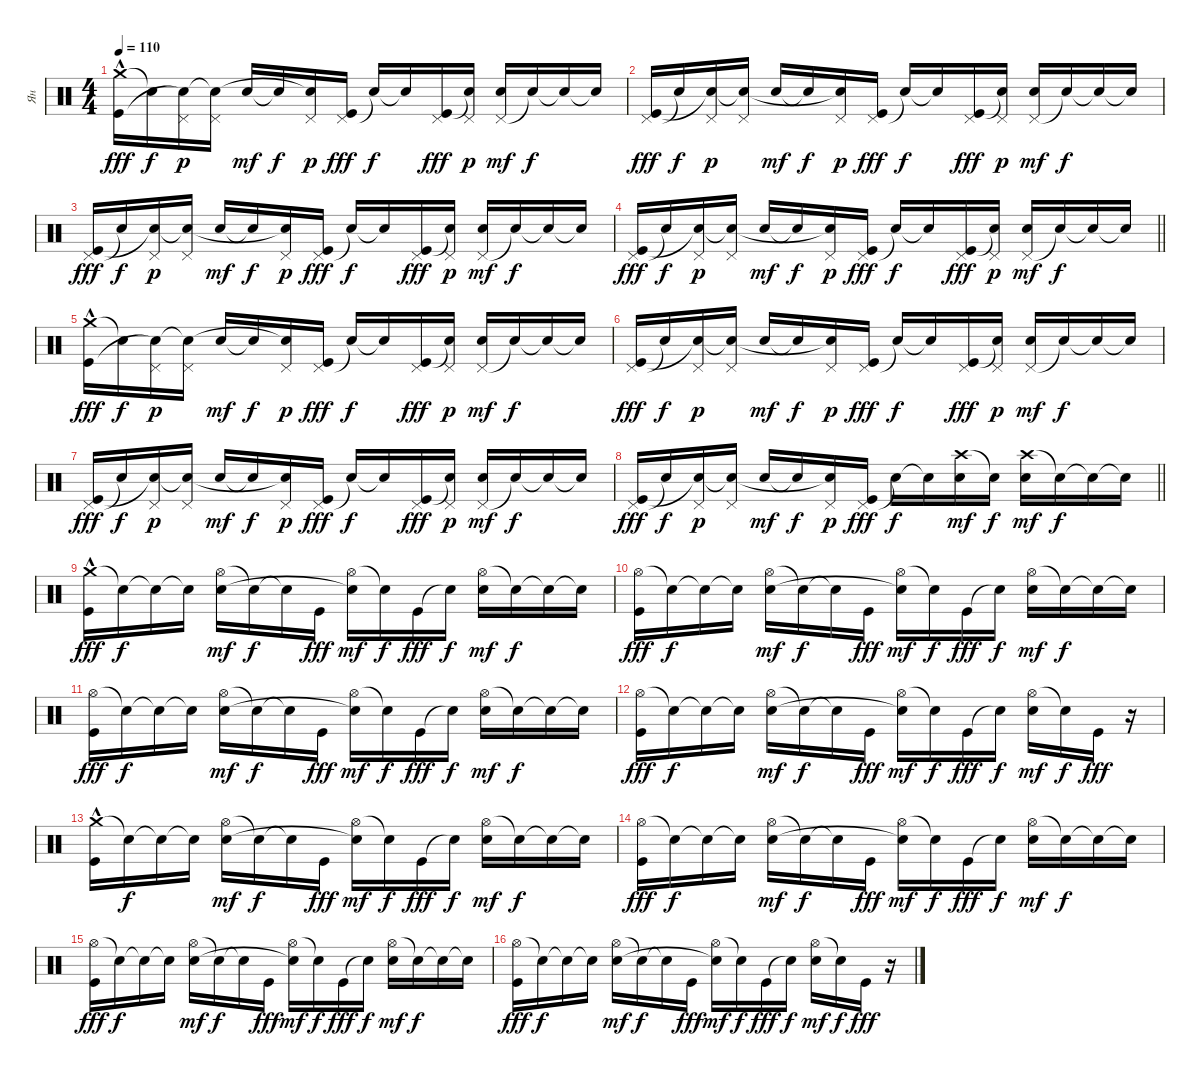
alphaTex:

\track ("Ян " "Ян ") {instrument percussion}
\staff
\articulation defaults
\ts (4 4)
\tempo 110
\clef neutral
\ks c
("Crash medium (hit)" "Kick (hit)"{hac}).16{dy fff} "Snare (hit)"{t}.16{dy f} ("Pedal Hi-Hat (hit)" "Snare (hit)"{t}).16{dy p} ("Pedal Hi-Hat (hit)" "Snare (hit)"{t}).16 "Snare (hit) 2".16{dy mf} "Snare (hit)"{t}.16{dy f} ("Pedal Hi-Hat (hit)" "Snare (hit)"{t}).16{dy p} ("Pedal Hi-Hat (hit)" "Kick (hit)").16{dy fff} "Snare (hit)"{t}.16{dy f} "Snare (hit)"{t}.16 ("Pedal Hi-Hat (hit)" "Kick (hit)").16{dy fff} ("Pedal Hi-Hat (hit)" "Snare (hit)"{t}).16{dy p} ("Pedal Hi-Hat (hit)" "Snare (hit) 2").16{dy mf} "Snare (hit)"{t}.16{dy f} "Snare (hit)"{t}.16 "Snare (hit)"{t}.16 |
("Pedal Hi-Hat (hit)" "Kick (hit)").16{dy fff} "Snare (hit)"{t}.16{dy f} ("Pedal Hi-Hat (hit)" "Snare (hit)"{t}).16{dy p} ("Pedal Hi-Hat (hit)" "Snare (hit)"{t}).16 "Snare (hit) 2".16{dy mf} "Snare (hit)"{t}.16{dy f} ("Pedal Hi-Hat (hit)" "Snare (hit)"{t}).16{dy p} ("Pedal Hi-Hat (hit)" "Kick (hit)").16{dy fff} "Snare (hit)"{t}.16{dy f} "Snare (hit)"{t}.16 ("Pedal Hi-Hat (hit)" "Kick (hit)").16{dy fff} ("Pedal Hi-Hat (hit)" "Snare (hit)"{t}).16{dy p} ("Pedal Hi-Hat (hit)" "Snare (hit) 2").16{dy mf} "Snare (hit)"{t}.16{dy f} "Snare (hit)"{t}.16 "Snare (hit)"{t}.16 |
("Pedal Hi-Hat (hit)" "Kick (hit)").16{dy fff} "Snare (hit)"{t}.16{dy f} ("Pedal Hi-Hat (hit)" "Snare (hit)"{t}).16{dy p} ("Pedal Hi-Hat (hit)" "Snare (hit)"{t}).16 "Snare (hit) 2".16{dy mf} "Snare (hit)"{t}.16{dy f} ("Pedal Hi-Hat (hit)" "Snare (hit)"{t}).16{dy p} ("Pedal Hi-Hat (hit)" "Kick (hit)").16{dy fff} "Snare (hit)"{t}.16{dy f} "Snare (hit)"{t}.16 ("Pedal Hi-Hat (hit)" "Kick (hit)").16{dy fff} ("Pedal Hi-Hat (hit)" "Snare (hit)"{t}).16{dy p} ("Pedal Hi-Hat (hit)" "Snare (hit) 2").16{dy mf} "Snare (hit)"{t}.16{dy f} "Snare (hit)"{t}.16 "Snare (hit)"{t}.16 |
\barLineRight lightlight
("Pedal Hi-Hat (hit)" "Kick (hit)").16{dy fff} "Snare (hit)"{t}.16{dy f} ("Pedal Hi-Hat (hit)" "Snare (hit)"{t}).16{dy p} ("Pedal Hi-Hat (hit)" "Snare (hit)"{t}).16 "Snare (hit) 2".16{dy mf} "Snare (hit)"{t}.16{dy f} ("Pedal Hi-Hat (hit)" "Snare (hit)"{t}).16{dy p} ("Pedal Hi-Hat (hit)" "Kick (hit)").16{dy fff} "Snare (hit)"{t}.16{dy f} "Snare (hit)"{t}.16 ("Pedal Hi-Hat (hit)" "Kick (hit)").16{dy fff} ("Pedal Hi-Hat (hit)" "Snare (hit)"{t}).16{dy p} ("Pedal Hi-Hat (hit)" "Snare (hit) 2").16{dy mf} "Snare (hit)"{t}.16{dy f} "Snare (hit)"{t}.16 "Snare (hit)"{t}.16 |
("Crash medium (hit)" "Kick (hit)"{hac}).16{dy fff} "Snare (hit)"{t}.16{dy f} ("Pedal Hi-Hat (hit)" "Snare (hit)"{t}).16{dy p} ("Pedal Hi-Hat (hit)" "Snare (hit)"{t}).16 "Snare (hit) 2".16{dy mf} "Snare (hit)"{t}.16{dy f} ("Pedal Hi-Hat (hit)" "Snare (hit)"{t}).16{dy p} ("Pedal Hi-Hat (hit)" "Kick (hit)").16{dy fff} "Snare (hit)"{t}.16{dy f} "Snare (hit)"{t}.16 ("Pedal Hi-Hat (hit)" "Kick (hit)").16{dy fff} ("Pedal Hi-Hat (hit)" "Snare (hit)"{t}).16{dy p} ("Pedal Hi-Hat (hit)" "Snare (hit) 2").16{dy mf} "Snare (hit)"{t}.16{dy f} "Snare (hit)"{t}.16 "Snare (hit)"{t}.16 |
("Pedal Hi-Hat (hit)" "Kick (hit)").16{dy fff} "Snare (hit)"{t}.16{dy f} ("Pedal Hi-Hat (hit)" "Snare (hit)"{t}).16{dy p} ("Pedal Hi-Hat (hit)" "Snare (hit)"{t}).16 "Snare (hit) 2".16{dy mf} "Snare (hit)"{t}.16{dy f} ("Pedal Hi-Hat (hit)" "Snare (hit)"{t}).16{dy p} ("Pedal Hi-Hat (hit)" "Kick (hit)").16{dy fff} "Snare (hit)"{t}.16{dy f} "Snare (hit)"{t}.16 ("Pedal Hi-Hat (hit)" "Kick (hit)").16{dy fff} ("Pedal Hi-Hat (hit)" "Snare (hit)"{t}).16{dy p} ("Pedal Hi-Hat (hit)" "Snare (hit) 2").16{dy mf} "Snare (hit)"{t}.16{dy f} "Snare (hit)"{t}.16 "Snare (hit)"{t}.16 |
("Pedal Hi-Hat (hit)" "Kick (hit)").16{dy fff} "Snare (hit)"{t}.16{dy f} ("Pedal Hi-Hat (hit)" "Snare (hit)"{t}).16{dy p} ("Pedal Hi-Hat (hit)" "Snare (hit)"{t}).16 "Snare (hit) 2".16{dy mf} "Snare (hit)"{t}.16{dy f} ("Pedal Hi-Hat (hit)" "Snare (hit)"{t}).16{dy p} ("Pedal Hi-Hat (hit)" "Kick (hit)").16{dy fff} "Snare (hit)"{t}.16{dy f} "Snare (hit)"{t}.16 ("Pedal Hi-Hat (hit)" "Kick (hit)").16{dy fff} ("Pedal Hi-Hat (hit)" "Snare (hit)"{t}).16{dy p} ("Pedal Hi-Hat (hit)" "Snare (hit) 2").16{dy mf} "Snare (hit)"{t}.16{dy f} "Snare (hit)"{t}.16 "Snare (hit)"{t}.16 |
\barLineRight lightlight
("Pedal Hi-Hat (hit)" "Kick (hit)").16{dy fff} "Snare (hit)"{t}.16{dy f} ("Pedal Hi-Hat (hit)" "Snare (hit)"{t}).16{dy p} ("Pedal Hi-Hat (hit)" "Snare (hit)"{t}).16 "Snare (hit) 2".16{dy mf} "Snare (hit)"{t}.16{dy f} ("Pedal Hi-Hat (hit)" "Snare (hit)"{t}).16{dy p} ("Pedal Hi-Hat (hit)" "Kick (hit)").16{dy fff} "Snare (hit)"{t}.16{dy f} "Snare (hit)"{t}.16 ("Crash high (hit)" "Snare (hit) 2").16{dy mf} "Snare (hit)"{t}.16{dy f} ("Crash high (hit)" "Snare (hit) 2").16{dy mf} "Snare (hit)"{t}.16{dy f} "Snare (hit)"{t}.16 "Snare (hit)"{t}.16 |
("Crash medium (hit)" "Kick (hit)"{hac}).16{dy fff} "Snare (hit)"{t}.16{dy f} "Snare (hit)"{t}.16 "Snare (hit)"{t}.16 ("Hi-Hat (open)" "Snare (hit) 2").16{dy mf} "Snare (hit)"{t}.16{dy f} "Snare (hit)"{t}.16 "Kick (hit)".16{dy fff} ("Hi-Hat (open)" "Snare (hit)"{t}).16{dy mf} "Snare (hit)"{t}.16{dy f} "Kick (hit)".16{dy fff} "Snare (hit)"{t}.16{dy f} ("Hi-Hat (open)" "Snare (hit) 2").16{dy mf} "Snare (hit)"{t}.16{dy f} "Snare (hit)"{t}.16 "Snare (hit)"{t}.16 |
("Hi-Hat (open)" "Kick (hit)").16{dy fff} "Snare (hit)"{t}.16{dy f} "Snare (hit)"{t}.16 "Snare (hit)"{t}.16 ("Hi-Hat (open)" "Snare (hit) 2").16{dy mf} "Snare (hit)"{t}.16{dy f} "Snare (hit)"{t}.16 "Kick (hit)".16{dy fff} ("Hi-Hat (open)" "Snare (hit)"{t}).16{dy mf} "Snare (hit)"{t}.16{dy f} "Kick (hit)".16{dy fff} "Snare (hit)"{t}.16{dy f} ("Hi-Hat (open)" "Snare (hit) 2").16{dy mf} "Snare (hit)"{t}.16{dy f} "Snare (hit)"{t}.16 "Snare (hit)"{t}.16 |
("Hi-Hat (open)" "Kick (hit)").16{dy fff} "Snare (hit)"{t}.16{dy f} "Snare (hit)"{t}.16 "Snare (hit)"{t}.16 ("Hi-Hat (open)" "Snare (hit) 2").16{dy mf} "Snare (hit)"{t}.16{dy f} "Snare (hit)"{t}.16 "Kick (hit)".16{dy fff} ("Hi-Hat (open)" "Snare (hit)"{t}).16{dy mf} "Snare (hit)"{t}.16{dy f} "Kick (hit)".16{dy fff} "Snare (hit)"{t}.16{dy f} ("Hi-Hat (open)" "Snare (hit) 2").16{dy mf} "Snare (hit)"{t}.16{dy f} "Snare (hit)"{t}.16 "Snare (hit)"{t}.16 |
("Hi-Hat (open)" "Kick (hit)").16{dy fff} "Snare (hit)"{t}.16{dy f} "Snare (hit)"{t}.16 "Snare (hit)"{t}.16 ("Hi-Hat (open)" "Snare (hit) 2").16{dy mf} "Snare (hit)"{t}.16{dy f} "Snare (hit)"{t}.16 "Kick (hit)".16{dy fff} ("Hi-Hat (open)" "Snare (hit)"{t}).16{dy mf} "Snare (hit)"{t}.16{dy f} "Kick (hit)".16{dy fff} "Snare (hit)"{t}.16{dy f} ("Hi-Hat (open)" "Snare (hit) 2").16{dy mf} "Snare (hit)"{t}.16{dy f} "Kick (hit)".16{dy fff} r.16 |
("Crash medium (hit)" "Kick (hit)"{hac}).16 "Snare (hit)"{t}.16{dy f} "Snare (hit)"{t}.16 "Snare (hit)"{t}.16 ("Hi-Hat (open)" "Snare (hit) 2").16{dy mf} "Snare (hit)"{t}.16{dy f} "Snare (hit)"{t}.16 "Kick (hit)".16{dy fff} ("Hi-Hat (open)" "Snare (hit)"{t}).16{dy mf} "Snare (hit)"{t}.16{dy f} "Kick (hit)".16{dy fff} "Snare (hit)"{t}.16{dy f} ("Hi-Hat (open)" "Snare (hit) 2").16{dy mf} "Snare (hit)"{t}.16{dy f} "Snare (hit)"{t}.16 "Snare (hit)"{t}.16 |
("Hi-Hat (open)" "Kick (hit)").16{dy fff} "Snare (hit)"{t}.16{dy f} "Snare (hit)"{t}.16 "Snare (hit)"{t}.16 ("Hi-Hat (open)" "Snare (hit) 2").16{dy mf} "Snare (hit)"{t}.16{dy f} "Snare (hit)"{t}.16 "Kick (hit)".16{dy fff} ("Hi-Hat (open)" "Snare (hit)"{t}).16{dy mf} "Snare (hit)"{t}.16{dy f} "Kick (hit)".16{dy fff} "Snare (hit)"{t}.16{dy f} ("Hi-Hat (open)" "Snare (hit) 2").16{dy mf} "Snare (hit)"{t}.16{dy f} "Snare (hit)"{t}.16 "Snare (hit)"{t}.16 |
("Hi-Hat (open)" "Kick (hit)").16{dy fff} "Snare (hit)"{t}.16{dy f} "Snare (hit)"{t}.16 "Snare (hit)"{t}.16 ("Hi-Hat (open)" "Snare (hit) 2").16{dy mf} "Snare (hit)"{t}.16{dy f} "Snare (hit)"{t}.16 "Kick (hit)".16{dy fff} ("Hi-Hat (open)" "Snare (hit)"{t}).16{dy mf} "Snare (hit)"{t}.16{dy f} "Kick (hit)".16{dy fff} "Snare (hit)"{t}.16{dy f} ("Hi-Hat (open)" "Snare (hit) 2").16{dy mf} "Snare (hit)"{t}.16{dy f} "Snare (hit)"{t}.16 "Snare (hit)"{t}.16 |
("Hi-Hat (open)" "Kick (hit)").16{dy fff} "Snare (hit)"{t}.16{dy f} "Snare (hit)"{t}.16 "Snare (hit)"{t}.16 ("Hi-Hat (open)" "Snare (hit) 2").16{dy mf} "Snare (hit)"{t}.16{dy f} "Snare (hit)"{t}.16 "Kick (hit)".16{dy fff} ("Hi-Hat (open)" "Snare (hit)"{t}).16{dy mf} "Snare (hit)"{t}.16{dy f} "Kick (hit)".16{dy fff} "Snare (hit)"{t}.16{dy f} ("Hi-Hat (open)" "Snare (hit) 2").16{dy mf} "Snare (hit)"{t}.16{dy f} "Kick (hit)".16{dy fff} r.16
